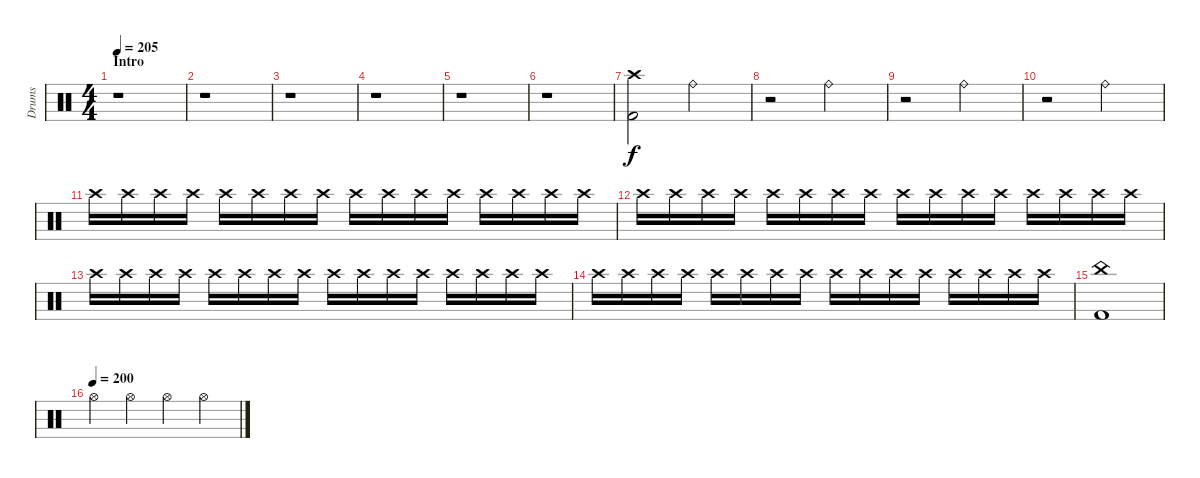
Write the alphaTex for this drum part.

\track ("Drums" "Drums") {instrument percussion}
\staff {score}
\articulation defaults
\ts (4 4)
\section ("" "Intro")
\tempo 205
\tempo 165
\tempo 205
\clef neutral
\ks c
r.1{dy f} |
r.1 |
r.1 |
r.1 |
r.1 |
r.1 |
("Crash high (hit)" "Kick (hit) 2").2 "Ride (bell)".2 |
r.2 "Ride (bell)".2 |
r.2 "Ride (bell)".2 |
r.2 "Ride (bell)".2 |
"Crash high (hit)".16{volume 0} "Crash high (hit)".16{volume 16} "Crash high (hit)".16 "Crash high (hit)".16 "Crash high (hit)".16 "Crash high (hit)".16 "Crash high (hit)".16 "Crash high (hit)".16 "Crash high (hit)".16 "Crash high (hit)".16 "Crash high (hit)".16 "Crash high (hit)".16 "Crash high (hit)".16 "Crash high (hit)".16 "Crash high (hit)".16 "Crash high (hit)".16 |
"Crash high (hit)".16 "Crash high (hit)".16 "Crash high (hit)".16 "Crash high (hit)".16 "Crash high (hit)".16 "Crash high (hit)".16 "Crash high (hit)".16 "Crash high (hit)".16 "Crash high (hit)".16 "Crash high (hit)".16 "Crash high (hit)".16 "Crash high (hit)".16 "Crash high (hit)".16 "Crash high (hit)".16 "Crash high (hit)".16 "Crash high (hit)".16 |
"Crash high (hit)".16 "Crash high (hit)".16 "Crash high (hit)".16 "Crash high (hit)".16 "Crash high (hit)".16 "Crash high (hit)".16 "Crash high (hit)".16 "Crash high (hit)".16 "Crash high (hit)".16 "Crash high (hit)".16 "Crash high (hit)".16 "Crash high (hit)".16 "Crash high (hit)".16 "Crash high (hit)".16 "Crash high (hit)".16 "Crash high (hit)".16 |
"Crash high (hit)".16 "Crash high (hit)".16 "Crash high (hit)".16 "Crash high (hit)".16 "Crash high (hit)".16 "Crash high (hit)".16 "Crash high (hit)".16 "Crash high (hit)".16 "Crash high (hit)".16 "Crash high (hit)".16 "Crash high (hit)".16 "Crash high (hit)".16 "Crash high (hit)".16 "Crash high (hit)".16 "Crash high (hit)".16 "Crash high (hit)".16 |
("China (hit)" "Kick (hit) 2").1 |
\tempo (200)
"Hi-Hat (open)".4 "Hi-Hat (open)".4 "Hi-Hat (open)".4 "Hi-Hat (open)".4
